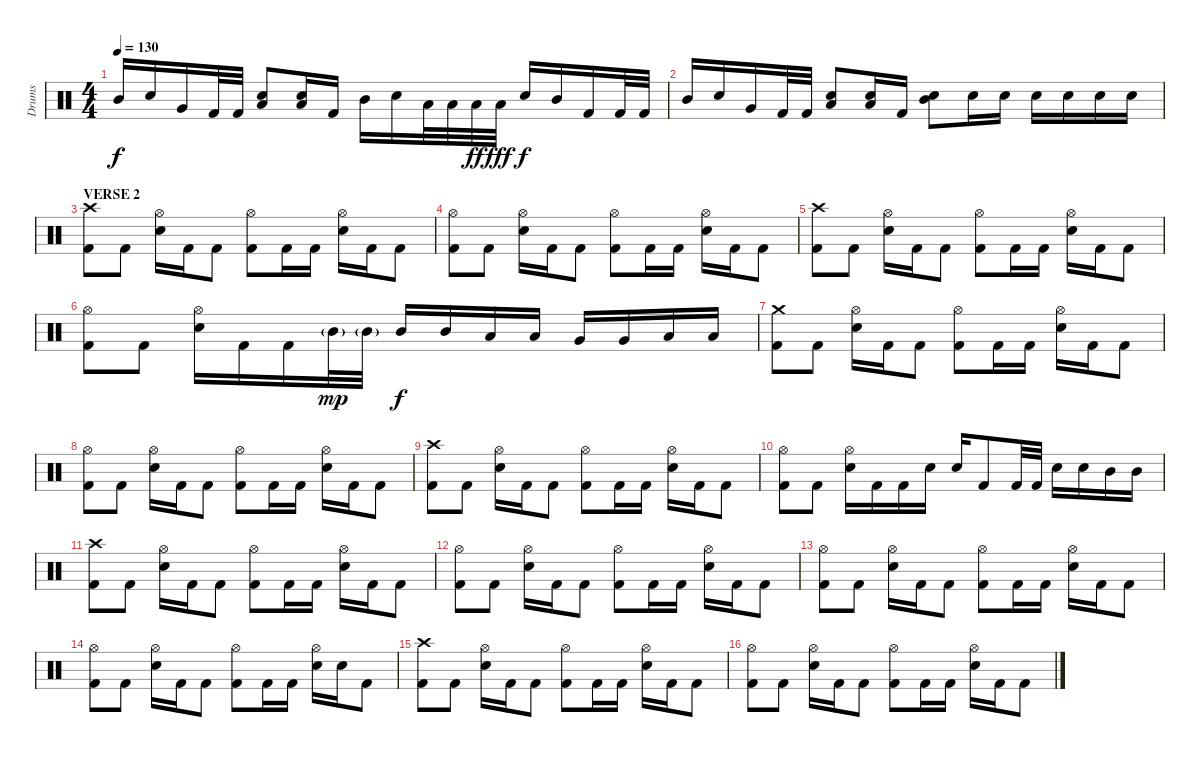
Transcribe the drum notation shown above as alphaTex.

\track ("Drums" "Drums") {instrument percussion}
\staff {score}
\articulation defaults
\ts (4 4)
\tempo 130
\clef neutral
\ks c "Mid Tom (hit)".16{dy f} "Electric Snare (hit)".16 "Very Low Tom (hit)".16 "Kick (hit) 2".32 "Kick (hit) 2".32
("Low Tom (hit)" "Electric Snare (hit)").8 ("Low Tom (hit)" "Electric Snare (hit)").16 "Kick (hit) 2".16 "Mid Tom (hit)".16 "Electric Snare (hit)".16 "Low Tom (hit)".32 "Low Tom (hit)".32 "Low Tom (hit)".32{dy ff} "Low Tom (hit)".32{dy fff} "Electric Snare (hit)".16{dy f} "Mid Tom (hit)".16 "Kick (hit) 2".16 "Kick (hit) 2".32 "Kick (hit) 2".32 |
"Mid Tom (hit)".16 "Electric Snare (hit)".16 "Very Low Tom (hit)".16 "Kick (hit) 2".32 "Kick (hit) 2".32 ("Low Tom (hit)" "Electric Snare (hit)").8 ("Low Tom (hit)" "Electric Snare (hit)").16 "Kick (hit) 2".16 ("Mid Tom (hit)" "Electric Snare (hit)").8 "Electric Snare (hit)".16 "Electric Snare (hit)".16 "Electric Snare (hit)".16 "Electric Snare (hit)".16 "Electric Snare (hit)".16 "Electric Snare (hit)".16 |
\section ("" "VERSE 2")
("Crash high (hit)" "Kick (hit) 2").8 "Kick (hit) 2".8 ("Hi-Hat (open)" "Electric Snare (hit)").16 "Kick (hit) 2".16 "Kick (hit) 2".8 ("Hi-Hat (open)" "Kick (hit) 2").8 "Kick (hit) 2".16 "Kick (hit) 2".16 ("Hi-Hat (open)" "Electric Snare (hit)").16 "Kick (hit) 2".16 "Kick (hit) 2".8 |
("Hi-Hat (open)" "Kick (hit) 2").8 "Kick (hit) 2".8 ("Hi-Hat (open)" "Electric Snare (hit)").16 "Kick (hit) 2".16 "Kick (hit) 2".8 ("Hi-Hat (open)" "Kick (hit) 2").8 "Kick (hit) 2".16 "Kick (hit) 2".16 ("Hi-Hat (open)" "Electric Snare (hit)").16 "Kick (hit) 2".16 "Kick (hit) 2".8 |
("Crash high (hit)" "Kick (hit) 2").8 "Kick (hit) 2".8 ("Hi-Hat (open)" "Electric Snare (hit)").16 "Kick (hit) 2".16 "Kick (hit) 2".8 ("Hi-Hat (open)" "Kick (hit) 2").8 "Kick (hit) 2".16 "Kick (hit) 2".16 ("Hi-Hat (open)" "Electric Snare (hit)").16 "Kick (hit) 2".16 "Kick (hit) 2".8 |
("Hi-Hat (open)" "Kick (hit) 2").8 "Kick (hit) 2".8 ("Hi-Hat (open)" "Electric Snare (hit)").16 "Kick (hit) 2".16 "Kick (hit) 2".16 "Mid Tom (hit)"{g}.32{dy mp} "Mid Tom (hit)"{g}.32 "Mid Tom (hit)".16{dy f} "Mid Tom (hit)".16 "Low Tom (hit)".16 "Low Tom (hit)".16 "Very Low Tom (hit)".16 "Very Low Tom (hit)".16 "Low Floor Tom (hit)".16 "Low Floor Tom (hit)".16 |
("Crash medium (hit)" "Kick (hit) 2").8 "Kick (hit) 2".8 ("Hi-Hat (open)" "Electric Snare (hit)").16 "Kick (hit) 2".16 "Kick (hit) 2".8 ("Hi-Hat (open)" "Kick (hit) 2").8 "Kick (hit) 2".16 "Kick (hit) 2".16 ("Hi-Hat (open)" "Electric Snare (hit)").16 "Kick (hit) 2".16 "Kick (hit) 2".8 |
("Hi-Hat (open)" "Kick (hit) 2").8 "Kick (hit) 2".8 ("Hi-Hat (open)" "Electric Snare (hit)").16 "Kick (hit) 2".16 "Kick (hit) 2".8 ("Hi-Hat (open)" "Kick (hit) 2").8 "Kick (hit) 2".16 "Kick (hit) 2".16 ("Hi-Hat (open)" "Electric Snare (hit)").16 "Kick (hit) 2".16 "Kick (hit) 2".8 |
("Crash high (hit)" "Kick (hit) 2").8 "Kick (hit) 2".8 ("Hi-Hat (open)" "Electric Snare (hit)").16 "Kick (hit) 2".16 "Kick (hit) 2".8 ("Hi-Hat (open)" "Kick (hit) 2").8 "Kick (hit) 2".16 "Kick (hit) 2".16 ("Hi-Hat (open)" "Electric Snare (hit)").16 "Kick (hit) 2".16 "Kick (hit) 2".8 |
("Hi-Hat (open)" "Kick (hit) 2").8 "Kick (hit) 2".8 ("Hi-Hat (open)" "Electric Snare (hit)").16 "Kick (hit) 2".16 "Kick (hit) 2".16 "Electric Snare (hit)".16 "Electric Snare (hit)".16 "Kick (hit) 2".8 "Kick (hit) 2".32 "Kick (hit) 2".32 "Electric Snare (hit)".16 "Electric Snare (hit)".16 "Mid Tom (hit)".16 "Mid Tom (hit)".16 |
("Crash high (hit)" "Kick (hit) 2").8 "Kick (hit) 2".8 ("Hi-Hat (open)" "Electric Snare (hit)").16 "Kick (hit) 2".16 "Kick (hit) 2".8 ("Hi-Hat (open)" "Kick (hit) 2").8 "Kick (hit) 2".16 "Kick (hit) 2".16 ("Hi-Hat (open)" "Electric Snare (hit)").16 "Kick (hit) 2".16 "Kick (hit) 2".8 |
("Hi-Hat (open)" "Kick (hit) 2").8 "Kick (hit) 2".8 ("Hi-Hat (open)" "Electric Snare (hit)").16 "Kick (hit) 2".16 "Kick (hit) 2".8 ("Hi-Hat (open)" "Kick (hit) 2").8 "Kick (hit) 2".16 "Kick (hit) 2".16 ("Hi-Hat (open)" "Electric Snare (hit)").16 "Kick (hit) 2".16 "Kick (hit) 2".8 |
("Hi-Hat (open)" "Kick (hit) 2").8 "Kick (hit) 2".8 ("Hi-Hat (open)" "Electric Snare (hit)").16 "Kick (hit) 2".16 "Kick (hit) 2".8 ("Hi-Hat (open)" "Kick (hit) 2").8 "Kick (hit) 2".16 "Kick (hit) 2".16 ("Hi-Hat (open)" "Electric Snare (hit)").16 "Kick (hit) 2".16 "Kick (hit) 2".8 |
("Hi-Hat (open)" "Kick (hit) 2").8 "Kick (hit) 2".8 ("Hi-Hat (open)" "Electric Snare (hit)").16 "Kick (hit) 2".16 "Kick (hit) 2".8 ("Hi-Hat (open)" "Kick (hit) 2").8 "Kick (hit) 2".16 "Kick (hit) 2".16 ("Hi-Hat (open)" "Electric Snare (hit)").16 "Electric Snare (hit)".16 "Kick (hit) 2".8 |
("Crash high (hit)" "Kick (hit) 2").8 "Kick (hit) 2".8 ("Hi-Hat (open)" "Electric Snare (hit)").16 "Kick (hit) 2".16 "Kick (hit) 2".8 ("Hi-Hat (open)" "Kick (hit) 2").8 "Kick (hit) 2".16 "Kick (hit) 2".16 ("Hi-Hat (open)" "Electric Snare (hit)").16 "Kick (hit) 2".16 "Kick (hit) 2".8 |
("Hi-Hat (open)" "Kick (hit) 2").8 "Kick (hit) 2".8 ("Hi-Hat (open)" "Electric Snare (hit)").16 "Kick (hit) 2".16 "Kick (hit) 2".8 ("Hi-Hat (open)" "Kick (hit) 2").8 "Kick (hit) 2".16 "Kick (hit) 2".16 ("Hi-Hat (open)" "Electric Snare (hit)").16 "Kick (hit) 2".16 "Kick (hit) 2".8
